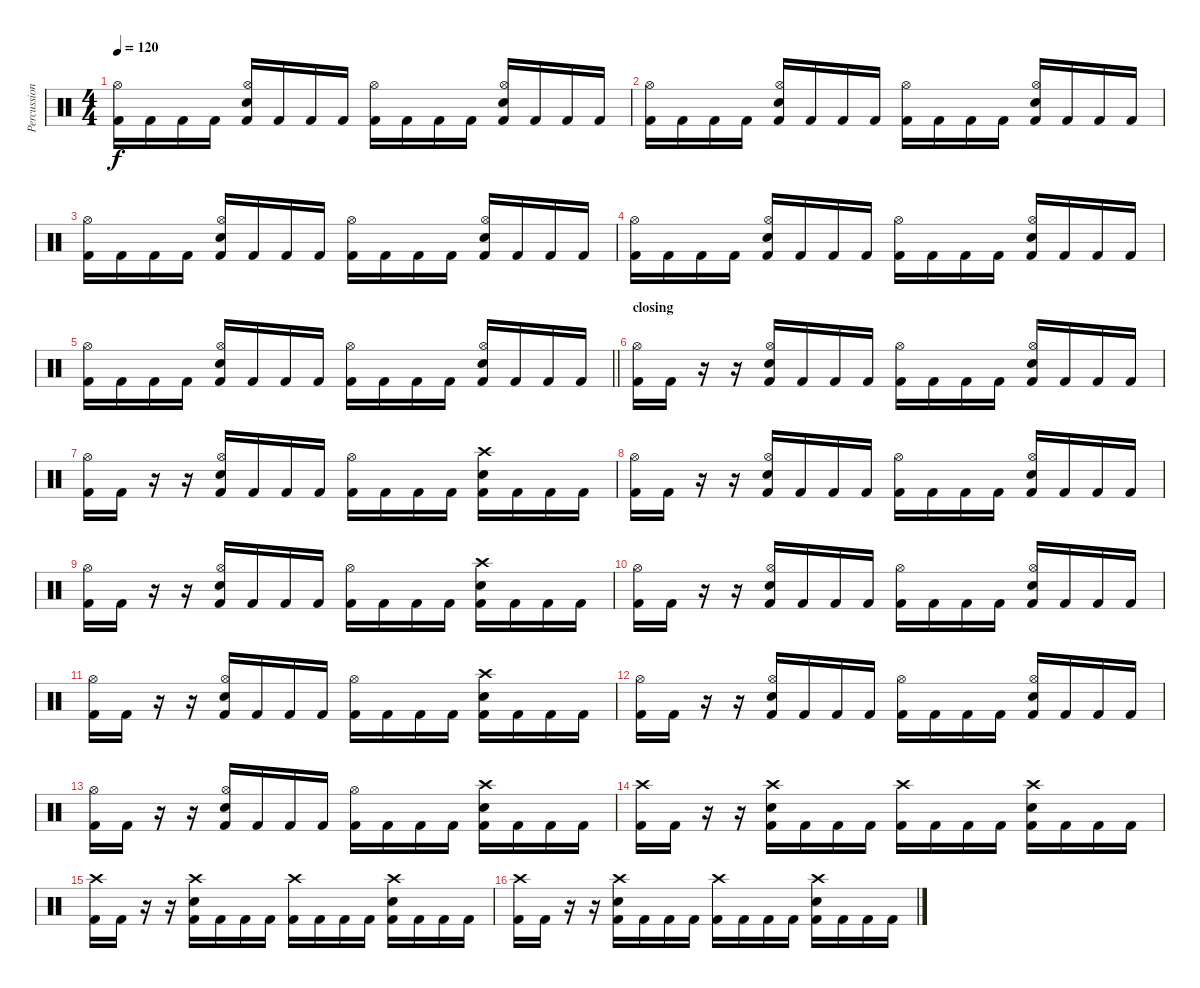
\track ("Percussion" "Percussion") {instrument percussion}
\staff {score}
\articulation defaults
\ts (4 4)
\tempo 120
\clef neutral
\ks c
("Kick (hit) 2" "Hi-Hat (open)").16{dy f} "Kick (hit) 2".16 "Kick (hit) 2".16 "Kick (hit) 2".16 ("Kick (hit) 2" "Hi-Hat (open)" "Electric Snare (hit)").16 "Kick (hit) 2".16 "Kick (hit) 2".16 "Kick (hit) 2".16 ("Kick (hit) 2" "Hi-Hat (open)").16 "Kick (hit) 2".16 "Kick (hit) 2".16 "Kick (hit) 2".16 ("Kick (hit) 2" "Hi-Hat (open)" "Electric Snare (hit)").16 "Kick (hit) 2".16 "Kick (hit) 2".16 "Kick (hit) 2".16 |
("Kick (hit) 2" "Hi-Hat (open)").16 "Kick (hit) 2".16 "Kick (hit) 2".16 "Kick (hit) 2".16 ("Kick (hit) 2" "Hi-Hat (open)" "Electric Snare (hit)").16 "Kick (hit) 2".16 "Kick (hit) 2".16 "Kick (hit) 2".16 ("Kick (hit) 2" "Hi-Hat (open)").16 "Kick (hit) 2".16 "Kick (hit) 2".16 "Kick (hit) 2".16 ("Kick (hit) 2" "Hi-Hat (open)" "Electric Snare (hit)").16 "Kick (hit) 2".16 "Kick (hit) 2".16 "Kick (hit) 2".16 |
("Kick (hit) 2" "Hi-Hat (open)").16 "Kick (hit) 2".16 "Kick (hit) 2".16 "Kick (hit) 2".16 ("Kick (hit) 2" "Hi-Hat (open)" "Electric Snare (hit)").16 "Kick (hit) 2".16 "Kick (hit) 2".16 "Kick (hit) 2".16 ("Kick (hit) 2" "Hi-Hat (open)").16 "Kick (hit) 2".16 "Kick (hit) 2".16 "Kick (hit) 2".16 ("Kick (hit) 2" "Hi-Hat (open)" "Electric Snare (hit)").16 "Kick (hit) 2".16 "Kick (hit) 2".16 "Kick (hit) 2".16 |
("Kick (hit) 2" "Hi-Hat (open)").16 "Kick (hit) 2".16 "Kick (hit) 2".16 "Kick (hit) 2".16 ("Kick (hit) 2" "Hi-Hat (open)" "Electric Snare (hit)").16 "Kick (hit) 2".16 "Kick (hit) 2".16 "Kick (hit) 2".16 ("Kick (hit) 2" "Hi-Hat (open)").16 "Kick (hit) 2".16 "Kick (hit) 2".16 "Kick (hit) 2".16 ("Kick (hit) 2" "Hi-Hat (open)" "Electric Snare (hit)").16 "Kick (hit) 2".16 "Kick (hit) 2".16 "Kick (hit) 2".16 |
\barLineRight lightlight
("Kick (hit) 2" "Hi-Hat (open)").16 "Kick (hit) 2".16 "Kick (hit) 2".16 "Kick (hit) 2".16 ("Kick (hit) 2" "Hi-Hat (open)" "Electric Snare (hit)").16 "Kick (hit) 2".16 "Kick (hit) 2".16 "Kick (hit) 2".16 ("Kick (hit) 2" "Hi-Hat (open)").16 "Kick (hit) 2".16 "Kick (hit) 2".16 "Kick (hit) 2".16 ("Kick (hit) 2" "Hi-Hat (open)" "Electric Snare (hit)").16 "Kick (hit) 2".16 "Kick (hit) 2".16 "Kick (hit) 2".16 |
\section ("" "closing")
("Kick (hit) 2" "Hi-Hat (open)").16 "Kick (hit) 2".16 r.16 r.16 ("Kick (hit) 2" "Hi-Hat (open)" "Electric Snare (hit)").16 "Kick (hit) 2".16 "Kick (hit) 2".16 "Kick (hit) 2".16 ("Kick (hit) 2" "Hi-Hat (open)").16 "Kick (hit) 2".16 "Kick (hit) 2".16 "Kick (hit) 2".16 ("Kick (hit) 2" "Hi-Hat (open)" "Electric Snare (hit)").16 "Kick (hit) 2".16 "Kick (hit) 2".16 "Kick (hit) 2".16 |
("Kick (hit) 2" "Hi-Hat (open)").16 "Kick (hit) 2".16 r.16 r.16 ("Kick (hit) 2" "Hi-Hat (open)" "Electric Snare (hit)").16 "Kick (hit) 2".16 "Kick (hit) 2".16 "Kick (hit) 2".16 ("Kick (hit) 2" "Hi-Hat (open)").16 "Kick (hit) 2".16 "Kick (hit) 2".16 "Kick (hit) 2".16 ("Kick (hit) 2" "Crash high (hit)" "Electric Snare (hit)").16 "Kick (hit) 2".16 "Kick (hit) 2".16 "Kick (hit) 2".16 |
("Kick (hit) 2" "Hi-Hat (open)").16 "Kick (hit) 2".16 r.16 r.16 ("Kick (hit) 2" "Hi-Hat (open)" "Electric Snare (hit)").16 "Kick (hit) 2".16 "Kick (hit) 2".16 "Kick (hit) 2".16 ("Kick (hit) 2" "Hi-Hat (open)").16 "Kick (hit) 2".16 "Kick (hit) 2".16 "Kick (hit) 2".16 ("Kick (hit) 2" "Hi-Hat (open)" "Electric Snare (hit)").16 "Kick (hit) 2".16 "Kick (hit) 2".16 "Kick (hit) 2".16 |
("Kick (hit) 2" "Hi-Hat (open)").16 "Kick (hit) 2".16 r.16 r.16 ("Kick (hit) 2" "Hi-Hat (open)" "Electric Snare (hit)").16 "Kick (hit) 2".16 "Kick (hit) 2".16 "Kick (hit) 2".16 ("Kick (hit) 2" "Hi-Hat (open)").16 "Kick (hit) 2".16 "Kick (hit) 2".16 "Kick (hit) 2".16 ("Kick (hit) 2" "Crash high (hit)" "Electric Snare (hit)").16 "Kick (hit) 2".16 "Kick (hit) 2".16 "Kick (hit) 2".16 |
("Kick (hit) 2" "Hi-Hat (open)").16 "Kick (hit) 2".16 r.16 r.16 ("Kick (hit) 2" "Hi-Hat (open)" "Electric Snare (hit)").16 "Kick (hit) 2".16 "Kick (hit) 2".16 "Kick (hit) 2".16 ("Kick (hit) 2" "Hi-Hat (open)").16 "Kick (hit) 2".16 "Kick (hit) 2".16 "Kick (hit) 2".16 ("Kick (hit) 2" "Hi-Hat (open)" "Electric Snare (hit)").16 "Kick (hit) 2".16 "Kick (hit) 2".16 "Kick (hit) 2".16 |
("Kick (hit) 2" "Hi-Hat (open)").16 "Kick (hit) 2".16 r.16 r.16 ("Kick (hit) 2" "Hi-Hat (open)" "Electric Snare (hit)").16 "Kick (hit) 2".16 "Kick (hit) 2".16 "Kick (hit) 2".16 ("Kick (hit) 2" "Hi-Hat (open)").16 "Kick (hit) 2".16 "Kick (hit) 2".16 "Kick (hit) 2".16 ("Kick (hit) 2" "Crash high (hit)" "Electric Snare (hit)").16 "Kick (hit) 2".16 "Kick (hit) 2".16 "Kick (hit) 2".16 |
("Kick (hit) 2" "Hi-Hat (open)").16 "Kick (hit) 2".16 r.16 r.16 ("Kick (hit) 2" "Hi-Hat (open)" "Electric Snare (hit)").16 "Kick (hit) 2".16 "Kick (hit) 2".16 "Kick (hit) 2".16 ("Kick (hit) 2" "Hi-Hat (open)").16 "Kick (hit) 2".16 "Kick (hit) 2".16 "Kick (hit) 2".16 ("Kick (hit) 2" "Hi-Hat (open)" "Electric Snare (hit)").16 "Kick (hit) 2".16 "Kick (hit) 2".16 "Kick (hit) 2".16 |
("Kick (hit) 2" "Hi-Hat (open)").16 "Kick (hit) 2".16 r.16 r.16 ("Kick (hit) 2" "Hi-Hat (open)" "Electric Snare (hit)").16 "Kick (hit) 2".16 "Kick (hit) 2".16 "Kick (hit) 2".16 ("Kick (hit) 2" "Hi-Hat (open)").16 "Kick (hit) 2".16 "Kick (hit) 2".16 "Kick (hit) 2".16 ("Kick (hit) 2" "Crash high (hit)" "Electric Snare (hit)").16 "Kick (hit) 2".16 "Kick (hit) 2".16 "Kick (hit) 2".16 |
("Kick (hit) 2" "Crash high (hit)").16 "Kick (hit) 2".16 r.16 r.16 ("Kick (hit) 2" "Crash high (hit)" "Electric Snare (hit)").16 "Kick (hit) 2".16 "Kick (hit) 2".16 "Kick (hit) 2".16 ("Kick (hit) 2" "Crash high (hit)").16 "Kick (hit) 2".16 "Kick (hit) 2".16 "Kick (hit) 2".16 ("Kick (hit) 2" "Crash high (hit)" "Electric Snare (hit)").16 "Kick (hit) 2".16 "Kick (hit) 2".16 "Kick (hit) 2".16 |
("Kick (hit) 2" "Crash high (hit)").16 "Kick (hit) 2".16 r.16 r.16 ("Kick (hit) 2" "Crash high (hit)" "Electric Snare (hit)").16 "Kick (hit) 2".16 "Kick (hit) 2".16 "Kick (hit) 2".16 ("Kick (hit) 2" "Crash high (hit)").16 "Kick (hit) 2".16 "Kick (hit) 2".16 "Kick (hit) 2".16 ("Kick (hit) 2" "Crash high (hit)" "Electric Snare (hit)").16 "Kick (hit) 2".16 "Kick (hit) 2".16 "Kick (hit) 2".16 |
("Kick (hit) 2" "Crash high (hit)").16 "Kick (hit) 2".16 r.16 r.16 ("Kick (hit) 2" "Crash high (hit)" "Electric Snare (hit)").16 "Kick (hit) 2".16 "Kick (hit) 2".16 "Kick (hit) 2".16 ("Kick (hit) 2" "Crash high (hit)").16 "Kick (hit) 2".16 "Kick (hit) 2".16 "Kick (hit) 2".16 ("Kick (hit) 2" "Crash high (hit)" "Electric Snare (hit)").16 "Kick (hit) 2".16 "Kick (hit) 2".16 "Kick (hit) 2".16
